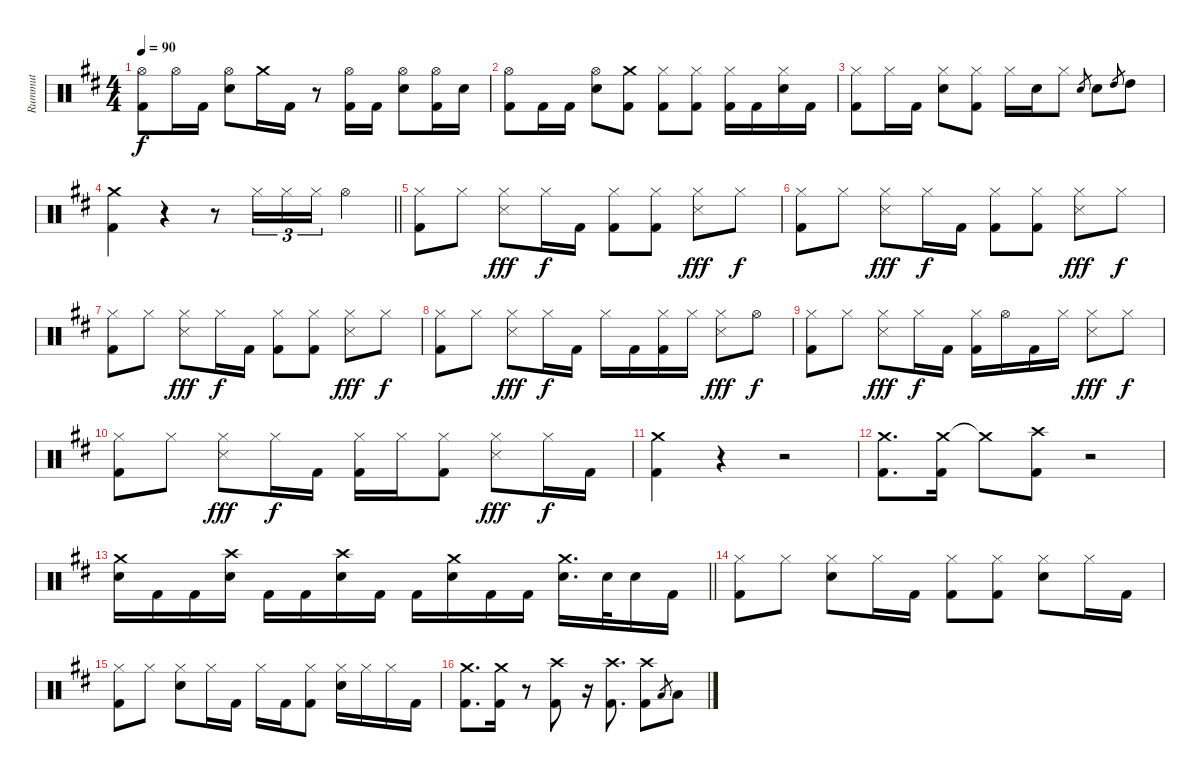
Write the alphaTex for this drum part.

\track ("Rummut" "Rummut") {instrument percussion}
\staff {score}
\articulation defaults
\ts (4 4)
\tempo 90
\clef neutral
\ks d
("Hi-Hat (open)" "Kick (hit) 2").8{dy f} "Hi-Hat (open)".16 "Kick (hit) 2".16 ("Hi-Hat (open)" "Snare (hit) 2").8 "Crash medium (hit)".16 "Kick (hit) 2".16 r.8 ("Hi-Hat (open)" "Kick (hit) 2").16 "Kick (hit) 2".16 ("Hi-Hat (open)" "Snare (hit) 2").8 ("Hi-Hat (open)" "Kick (hit) 2").16 "Snare (hit) 2".16 |
("Hi-Hat (open)" "Kick (hit) 2").8 "Kick (hit) 2".16 "Kick (hit) 2".16 ("Hi-Hat (open)" "Snare (hit) 2").8 ("Crash medium (hit)" "Kick (hit) 2").8 ("Hi-Hat (closed)" "Kick (hit) 2").8 ("Hi-Hat (closed)" "Kick (hit) 2").8 ("Hi-Hat (closed)" "Kick (hit) 2").16 "Kick (hit) 2".16 ("Hi-Hat (closed)" "Snare (hit) 2").16 "Kick (hit) 2".16 |
("Hi-Hat (closed)" "Kick (hit) 2").8 "Hi-Hat (closed)".16 "Kick (hit) 2".16 ("Hi-Hat (closed)" "Snare (hit) 2").8 ("Hi-Hat (closed)" "Kick (hit) 2").8 "Hi-Hat (closed)".16 "Snare (hit) 2".16 "Hi-Hat (closed)".8 "Snare (hit) 2".8{gr} "Snare (hit) 2".8 "High Tom (hit)".8{gr} "High Tom (hit)".8 |
\barLineRight lightlight
("Crash medium (hit)" "Kick (hit) 2").4 r.4 r.8 "Hi-Hat (closed)".16{tu (3 2)} "Hi-Hat (closed)".16{tu (3 2)} "Hi-Hat (closed)".16{tu (3 2)} "Hi-Hat (open)".4 |
("Hi-Hat (closed)" "Kick (hit) 2").8 "Hi-Hat (closed)".8 ("Hi-Hat (closed)" "Snare (side stick) 3").8{dy fff} "Hi-Hat (closed)".16{dy f} "Kick (hit) 2".16 ("Hi-Hat (closed)" "Kick (hit) 2").8 ("Hi-Hat (closed)" "Kick (hit) 2").8 ("Hi-Hat (closed)" "Snare (side stick) 3").8{dy fff} "Hi-Hat (closed)".8{dy f} |
("Hi-Hat (closed)" "Kick (hit) 2").8 "Hi-Hat (closed)".8 ("Hi-Hat (closed)" "Snare (side stick) 3").8{dy fff} "Hi-Hat (closed)".16{dy f} "Kick (hit) 2".16 ("Hi-Hat (closed)" "Kick (hit) 2").8 ("Hi-Hat (closed)" "Kick (hit) 2").8 ("Hi-Hat (closed)" "Snare (side stick) 3").8{dy fff} "Hi-Hat (closed)".8{dy f} |
("Hi-Hat (closed)" "Kick (hit) 2").8 "Hi-Hat (closed)".8 ("Hi-Hat (closed)" "Snare (side stick) 3").8{dy fff} "Hi-Hat (closed)".16{dy f} "Kick (hit) 2".16 ("Hi-Hat (closed)" "Kick (hit) 2").8 ("Hi-Hat (closed)" "Kick (hit) 2").8 ("Hi-Hat (closed)" "Snare (side stick) 3").8{dy fff} "Hi-Hat (closed)".8{dy f} |
("Hi-Hat (closed)" "Kick (hit) 2").8 "Hi-Hat (closed)".8 ("Hi-Hat (closed)" "Snare (side stick) 3").8{dy fff} "Hi-Hat (closed)".16{dy f} "Kick (hit) 2".16 "Hi-Hat (closed)".16 "Kick (hit) 2".16 ("Hi-Hat (closed)" "Kick (hit) 2").16 "Hi-Hat (closed)".16 ("Hi-Hat (closed)" "Snare (side stick) 3").8{dy fff} "Hi-Hat (open)".8{dy f} |
("Hi-Hat (closed)" "Kick (hit) 2").8 "Hi-Hat (closed)".8 ("Hi-Hat (closed)" "Snare (side stick) 3").8{dy fff} "Hi-Hat (closed)".16{dy f} "Kick (hit) 2".16 ("Hi-Hat (closed)" "Kick (hit) 2").16 "Hi-Hat (open)".16 "Kick (hit) 2".16 "Hi-Hat (closed)".16 ("Hi-Hat (closed)" "Snare (side stick) 3").8{dy fff} "Hi-Hat (closed)".8{dy f} |
("Hi-Hat (closed)" "Kick (hit) 2").8 "Hi-Hat (closed)".8 ("Hi-Hat (closed)" "Snare (side stick) 3").8{dy fff} "Hi-Hat (closed)".16{dy f} "Kick (hit) 2".16 ("Hi-Hat (closed)" "Kick (hit) 2").16 "Hi-Hat (closed)".16 ("Hi-Hat (closed)" "Kick (hit) 2").8 ("Hi-Hat (closed)" "Snare (side stick) 3").8{dy fff} "Hi-Hat (closed)".16{dy f} "Kick (hit) 2".16 |
("Crash medium (hit)" "Kick (hit) 2").4 r.4 r.2 |
("Crash medium (hit)" "Kick (hit) 2").8{d} ("Crash medium (hit)" "Kick (hit) 2").16 "Crash medium (hit)"{t}.8 ("Crash high (hit)" "Kick (hit) 2").8 r.2 |
\barLineRight lightlight
("Crash medium (hit)" "Snare (hit) 2").16 "Kick (hit) 2".16 "Kick (hit) 2".16 ("Crash high (hit)" "Snare (hit) 2").16 "Kick (hit) 2".16 "Kick (hit) 2".16 ("Crash high (hit)" "Snare (hit) 2").16 "Kick (hit) 2".16 "Kick (hit) 2".16 ("Crash medium (hit)" "Snare (hit) 2").16 "Kick (hit) 2".16 "Kick (hit) 2".16 ("Crash medium (hit)" "Snare (hit) 2").16{d} "Snare (hit) 2".32 "Snare (hit) 2".16 "Kick (hit) 2".16 |
("Hi-Hat (closed)" "Kick (hit) 2").8 "Hi-Hat (closed)".8 ("Hi-Hat (closed)" "Snare (hit) 2").8 "Hi-Hat (closed)".16 "Kick (hit) 2".16 ("Hi-Hat (closed)" "Kick (hit) 2").8 ("Hi-Hat (closed)" "Kick (hit) 2").8 ("Hi-Hat (closed)" "Snare (hit) 2").8 "Hi-Hat (closed)".16 "Kick (hit) 2".16 |
("Hi-Hat (closed)" "Kick (hit) 2").8 "Hi-Hat (closed)".8 ("Hi-Hat (closed)" "Snare (hit) 2").8 "Hi-Hat (closed)".16 "Kick (hit) 2".16 "Hi-Hat (closed)".16 "Kick (hit) 2".16 ("Hi-Hat (closed)" "Kick (hit) 2").8 ("Hi-Hat (closed)" "Snare (hit) 2").16 "Hi-Hat (closed)".16 "Hi-Hat (closed)".16 "Kick (hit) 2".16 |
("Crash medium (hit)" "Kick (hit) 2").8{d} ("Crash medium (hit)" "Kick (hit) 2").16 r.8 ("Crash high (hit)" "Kick (hit) 2").8 r.16 ("Crash high (hit)" "Kick (hit) 2").8{d} ("Crash high (hit)" "Kick (hit) 2").8 "Low Tom (hit)".8{gr} "Low Tom (hit)".8
